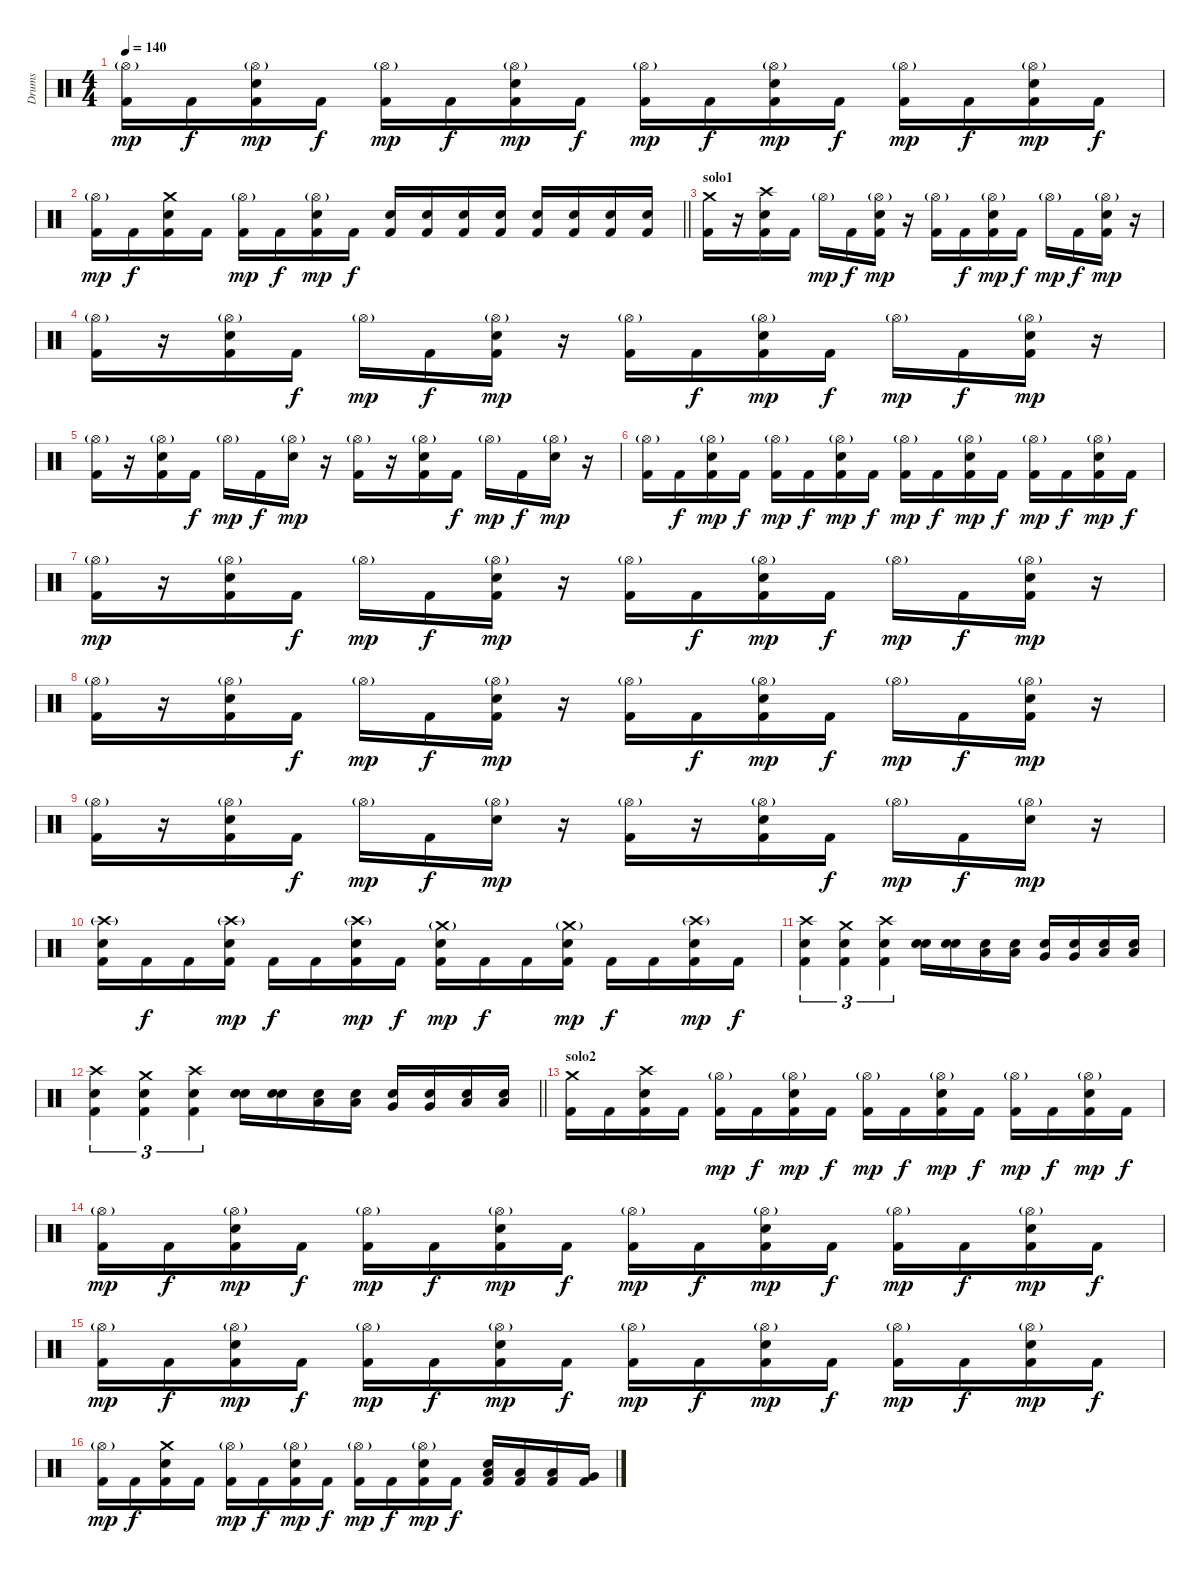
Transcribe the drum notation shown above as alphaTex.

\track ("Drums" "Drums") {instrument percussion}
\staff {score}
\articulation defaults
\ts (4 4)
\tempo 140
\clef neutral
\ks c
("Hi-Hat (open)"{g} "Kick (hit) 2").16{dy mp} "Kick (hit) 2".16{dy f} ("Hi-Hat (open)"{g} "Electric Snare (hit)" "Kick (hit) 2").16{dy mp} "Kick (hit) 2".16{dy f} ("Hi-Hat (open)"{g} "Kick (hit) 2").16{dy mp} "Kick (hit) 2".16{dy f} ("Hi-Hat (open)"{g} "Electric Snare (hit)" "Kick (hit) 2").16{dy mp} "Kick (hit) 2".16{dy f} ("Hi-Hat (open)"{g} "Kick (hit) 2").16{dy mp} "Kick (hit) 2".16{dy f} ("Hi-Hat (open)"{g} "Electric Snare (hit)" "Kick (hit) 2").16{dy mp} "Kick (hit) 2".16{dy f} ("Hi-Hat (open)"{g} "Kick (hit) 2").16{dy mp} "Kick (hit) 2".16{dy f} ("Hi-Hat (open)"{g} "Electric Snare (hit)" "Kick (hit) 2").16{dy mp} "Kick (hit) 2".16{dy f} |
\barLineRight lightlight
("Hi-Hat (open)"{g} "Kick (hit) 2").16{dy mp} "Kick (hit) 2".16{dy f} ("Crash medium (hit)" "Electric Snare (hit)" "Kick (hit) 2").16 "Kick (hit) 2".16 ("Hi-Hat (open)"{g} "Kick (hit) 2").16{dy mp} "Kick (hit) 2".16{dy f} ("Hi-Hat (open)"{g} "Electric Snare (hit)" "Kick (hit) 2").16{dy mp} "Kick (hit) 2".16{dy f} ("Electric Snare (hit)" "Kick (hit) 2").16 ("Electric Snare (hit)" "Kick (hit) 2").16 ("Electric Snare (hit)" "Kick (hit) 2").16 ("Electric Snare (hit)" "Kick (hit) 2").16 ("Electric Snare (hit)" "Kick (hit) 2").16 ("Electric Snare (hit)" "Kick (hit) 2").16 ("Electric Snare (hit)" "Kick (hit) 2").16 ("Electric Snare (hit)" "Kick (hit) 2").16 |
\section ("" "solo1")
("Crash medium (hit)" "Kick (hit) 2").16 r.16 ("Crash high (hit)" "Electric Snare (hit)" "Kick (hit) 2").16 "Kick (hit) 2".16 "Hi-Hat (open)"{g}.16{dy mp} "Kick (hit) 2".16{dy f} ("Hi-Hat (open)"{g} "Electric Snare (hit)" "Kick (hit) 2").16{dy mp} r.16 ("Hi-Hat (open)"{g} "Kick (hit) 2").16 "Kick (hit) 2".16{dy f} ("Hi-Hat (open)"{g} "Electric Snare (hit)" "Kick (hit) 2").16{dy mp} "Kick (hit) 2".16{dy f} "Hi-Hat (open)"{g}.16{dy mp} "Kick (hit) 2".16{dy f} ("Hi-Hat (open)"{g} "Electric Snare (hit)" "Kick (hit) 2").16{dy mp} r.16 |
("Hi-Hat (open)"{g} "Kick (hit) 2").16 r.16 ("Hi-Hat (open)"{g} "Electric Snare (hit)" "Kick (hit) 2").16 "Kick (hit) 2".16{dy f} "Hi-Hat (open)"{g}.16{dy mp} "Kick (hit) 2".16{dy f} ("Hi-Hat (open)"{g} "Electric Snare (hit)" "Kick (hit) 2").16{dy mp} r.16 ("Hi-Hat (open)"{g} "Kick (hit) 2").16 "Kick (hit) 2".16{dy f} ("Hi-Hat (open)"{g} "Electric Snare (hit)" "Kick (hit) 2").16{dy mp} "Kick (hit) 2".16{dy f} "Hi-Hat (open)"{g}.16{dy mp} "Kick (hit) 2".16{dy f} ("Hi-Hat (open)"{g} "Electric Snare (hit)" "Kick (hit) 2").16{dy mp} r.16 |
("Hi-Hat (open)"{g} "Kick (hit) 2").16 r.16 ("Hi-Hat (open)"{g} "Electric Snare (hit)" "Kick (hit) 2").16 "Kick (hit) 2".16{dy f} "Hi-Hat (open)"{g}.16{dy mp} "Kick (hit) 2".16{dy f} ("Hi-Hat (open)"{g} "Electric Snare (hit)").16{dy mp} r.16 ("Hi-Hat (open)"{g} "Kick (hit) 2").16 r.16 ("Hi-Hat (open)"{g} "Electric Snare (hit)" "Kick (hit) 2").16 "Kick (hit) 2".16{dy f} "Hi-Hat (open)"{g}.16{dy mp} "Kick (hit) 2".16{dy f} ("Hi-Hat (open)"{g} "Electric Snare (hit)").16{dy mp} r.16 |
("Hi-Hat (open)"{g} "Kick (hit) 2").16 "Kick (hit) 2".16{dy f} ("Hi-Hat (open)"{g} "Electric Snare (hit)" "Kick (hit) 2").16{dy mp} "Kick (hit) 2".16{dy f} ("Hi-Hat (open)"{g} "Kick (hit) 2").16{dy mp} "Kick (hit) 2".16{dy f} ("Hi-Hat (open)"{g} "Electric Snare (hit)" "Kick (hit) 2").16{dy mp} "Kick (hit) 2".16{dy f} ("Hi-Hat (open)"{g} "Kick (hit) 2").16{dy mp} "Kick (hit) 2".16{dy f} ("Hi-Hat (open)"{g} "Electric Snare (hit)" "Kick (hit) 2").16{dy mp} "Kick (hit) 2".16{dy f} ("Hi-Hat (open)"{g} "Kick (hit) 2").16{dy mp} "Kick (hit) 2".16{dy f} ("Hi-Hat (open)"{g} "Electric Snare (hit)" "Kick (hit) 2").16{dy mp} "Kick (hit) 2".16{dy f} |
("Hi-Hat (open)"{g} "Kick (hit) 2").16{dy mp} r.16 ("Hi-Hat (open)"{g} "Electric Snare (hit)" "Kick (hit) 2").16 "Kick (hit) 2".16{dy f} "Hi-Hat (open)"{g}.16{dy mp} "Kick (hit) 2".16{dy f} ("Hi-Hat (open)"{g} "Electric Snare (hit)" "Kick (hit) 2").16{dy mp} r.16 ("Hi-Hat (open)"{g} "Kick (hit) 2").16 "Kick (hit) 2".16{dy f} ("Hi-Hat (open)"{g} "Electric Snare (hit)" "Kick (hit) 2").16{dy mp} "Kick (hit) 2".16{dy f} "Hi-Hat (open)"{g}.16{dy mp} "Kick (hit) 2".16{dy f} ("Hi-Hat (open)"{g} "Electric Snare (hit)" "Kick (hit) 2").16{dy mp} r.16 |
("Hi-Hat (open)"{g} "Kick (hit) 2").16 r.16 ("Hi-Hat (open)"{g} "Electric Snare (hit)" "Kick (hit) 2").16 "Kick (hit) 2".16{dy f} "Hi-Hat (open)"{g}.16{dy mp} "Kick (hit) 2".16{dy f} ("Hi-Hat (open)"{g} "Electric Snare (hit)" "Kick (hit) 2").16{dy mp} r.16 ("Hi-Hat (open)"{g} "Kick (hit) 2").16 "Kick (hit) 2".16{dy f} ("Hi-Hat (open)"{g} "Electric Snare (hit)" "Kick (hit) 2").16{dy mp} "Kick (hit) 2".16{dy f} "Hi-Hat (open)"{g}.16{dy mp} "Kick (hit) 2".16{dy f} ("Hi-Hat (open)"{g} "Electric Snare (hit)" "Kick (hit) 2").16{dy mp} r.16 |
("Hi-Hat (open)"{g} "Kick (hit) 2").16 r.16 ("Hi-Hat (open)"{g} "Electric Snare (hit)" "Kick (hit) 2").16 "Kick (hit) 2".16{dy f} "Hi-Hat (open)"{g}.16{dy mp} "Kick (hit) 2".16{dy f} ("Hi-Hat (open)"{g} "Electric Snare (hit)").16{dy mp} r.16 ("Hi-Hat (open)"{g} "Kick (hit) 2").16 r.16 ("Hi-Hat (open)"{g} "Electric Snare (hit)" "Kick (hit) 2").16 "Kick (hit) 2".16{dy f} "Hi-Hat (open)"{g}.16{dy mp} "Kick (hit) 2".16{dy f} ("Hi-Hat (open)"{g} "Electric Snare (hit)").16{dy mp} r.16 |
("Crash high (hit)"{g} "Electric Snare (hit)" "Kick (hit) 2").16 "Kick (hit) 2".16{dy f} "Kick (hit) 2".16 ("Crash high (hit)"{g} "Electric Snare (hit)" "Kick (hit) 2").16{dy mp} "Kick (hit) 2".16{dy f} "Kick (hit) 2".16 ("Crash high (hit)"{g} "Electric Snare (hit)" "Kick (hit) 2").16{dy mp} "Kick (hit) 2".16{dy f} ("Crash medium (hit)"{g} "Electric Snare (hit)" "Kick (hit) 2").16{dy mp} "Kick (hit) 2".16{dy f} "Kick (hit) 2".16 ("Crash medium (hit)"{g} "Electric Snare (hit)" "Kick (hit) 2").16{dy mp} "Kick (hit) 2".16{dy f} "Kick (hit) 2".16 ("Crash high (hit)"{g} "Electric Snare (hit)" "Kick (hit) 2").16{dy mp} "Kick (hit) 2".16{dy f} |
("Crash high (hit)" "Electric Snare (hit)" "Kick (hit) 2").4{tu (3 2)} ("Crash medium (hit)" "Electric Snare (hit)" "Kick (hit) 2").4{tu (3 2)} ("Crash high (hit)" "Electric Snare (hit)" "Kick (hit) 2").4{tu (3 2)} ("Electric Snare (hit)" "Snare (hit) 2").16 ("Electric Snare (hit)" "Snare (hit) 2").16 ("Electric Snare (hit)" "Low Floor Tom (hit)").16 ("Electric Snare (hit)" "Low Floor Tom (hit)").16 ("Electric Snare (hit)" "Very Low Tom (hit)").16 ("Electric Snare (hit)" "Very Low Tom (hit)").16 ("Electric Snare (hit)" "Low Tom (hit)").16 ("Electric Snare (hit)" "Low Tom (hit)").16 |
\barLineRight lightlight
("Crash high (hit)" "Electric Snare (hit)" "Kick (hit) 2").4{tu (3 2)} ("Crash medium (hit)" "Electric Snare (hit)" "Kick (hit) 2").4{tu (3 2)} ("Crash high (hit)" "Electric Snare (hit)" "Kick (hit) 2").4{tu (3 2)} ("Electric Snare (hit)" "Snare (hit) 2").16 ("Electric Snare (hit)" "Snare (hit) 2").16 ("Electric Snare (hit)" "Low Floor Tom (hit)").16 ("Electric Snare (hit)" "Low Floor Tom (hit)").16 ("Electric Snare (hit)" "Very Low Tom (hit)").16 ("Electric Snare (hit)" "Very Low Tom (hit)").16 ("Electric Snare (hit)" "Low Tom (hit)").16 ("Electric Snare (hit)" "Low Tom (hit)").16 |
\section ("" "solo2")
("Crash medium (hit)" "Kick (hit) 2").16 "Kick (hit) 2".16 ("Crash high (hit)" "Electric Snare (hit)" "Kick (hit) 2").16 "Kick (hit) 2".16 ("Hi-Hat (open)"{g} "Kick (hit) 2").16{dy mp} "Kick (hit) 2".16{dy f} ("Hi-Hat (open)"{g} "Electric Snare (hit)" "Kick (hit) 2").16{dy mp} "Kick (hit) 2".16{dy f} ("Hi-Hat (open)"{g} "Kick (hit) 2").16{dy mp} "Kick (hit) 2".16{dy f} ("Hi-Hat (open)"{g} "Electric Snare (hit)" "Kick (hit) 2").16{dy mp} "Kick (hit) 2".16{dy f} ("Hi-Hat (open)"{g} "Kick (hit) 2").16{dy mp} "Kick (hit) 2".16{dy f} ("Hi-Hat (open)"{g} "Electric Snare (hit)" "Kick (hit) 2").16{dy mp} "Kick (hit) 2".16{dy f} |
("Hi-Hat (open)"{g} "Kick (hit) 2").16{dy mp} "Kick (hit) 2".16{dy f} ("Hi-Hat (open)"{g} "Electric Snare (hit)" "Kick (hit) 2").16{dy mp} "Kick (hit) 2".16{dy f} ("Hi-Hat (open)"{g} "Kick (hit) 2").16{dy mp} "Kick (hit) 2".16{dy f} ("Hi-Hat (open)"{g} "Electric Snare (hit)" "Kick (hit) 2").16{dy mp} "Kick (hit) 2".16{dy f} ("Hi-Hat (open)"{g} "Kick (hit) 2").16{dy mp} "Kick (hit) 2".16{dy f} ("Hi-Hat (open)"{g} "Electric Snare (hit)" "Kick (hit) 2").16{dy mp} "Kick (hit) 2".16{dy f} ("Hi-Hat (open)"{g} "Kick (hit) 2").16{dy mp} "Kick (hit) 2".16{dy f} ("Hi-Hat (open)"{g} "Electric Snare (hit)" "Kick (hit) 2").16{dy mp} "Kick (hit) 2".16{dy f} |
("Hi-Hat (open)"{g} "Kick (hit) 2").16{dy mp} "Kick (hit) 2".16{dy f} ("Hi-Hat (open)"{g} "Electric Snare (hit)" "Kick (hit) 2").16{dy mp} "Kick (hit) 2".16{dy f} ("Hi-Hat (open)"{g} "Kick (hit) 2").16{dy mp} "Kick (hit) 2".16{dy f} ("Hi-Hat (open)"{g} "Electric Snare (hit)" "Kick (hit) 2").16{dy mp} "Kick (hit) 2".16{dy f} ("Hi-Hat (open)"{g} "Kick (hit) 2").16{dy mp} "Kick (hit) 2".16{dy f} ("Hi-Hat (open)"{g} "Electric Snare (hit)" "Kick (hit) 2").16{dy mp} "Kick (hit) 2".16{dy f} ("Hi-Hat (open)"{g} "Kick (hit) 2").16{dy mp} "Kick (hit) 2".16{dy f} ("Hi-Hat (open)"{g} "Electric Snare (hit)" "Kick (hit) 2").16{dy mp} "Kick (hit) 2".16{dy f} |
("Hi-Hat (open)"{g} "Kick (hit) 2").16{dy mp} "Kick (hit) 2".16{dy f} ("Crash medium (hit)" "Electric Snare (hit)" "Kick (hit) 2").16 "Kick (hit) 2".16 ("Hi-Hat (open)"{g} "Kick (hit) 2").16{dy mp} "Kick (hit) 2".16{dy f} ("Hi-Hat (open)"{g} "Electric Snare (hit)" "Kick (hit) 2").16{dy mp} "Kick (hit) 2".16{dy f} ("Hi-Hat (open)"{g} "Kick (hit) 2").16{dy mp} "Kick (hit) 2".16{dy f} ("Hi-Hat (open)"{g} "Electric Snare (hit)" "Kick (hit) 2").16{dy mp} "Kick (hit) 2".16{dy f} ("Electric Snare (hit)" "Kick (hit) 2" "Low Tom (hit)").16 ("Kick (hit) 2" "Low Tom (hit)").16 ("Kick (hit) 2" "Low Tom (hit)").16 ("Kick (hit) 2" "Very Low Tom (hit)").16
